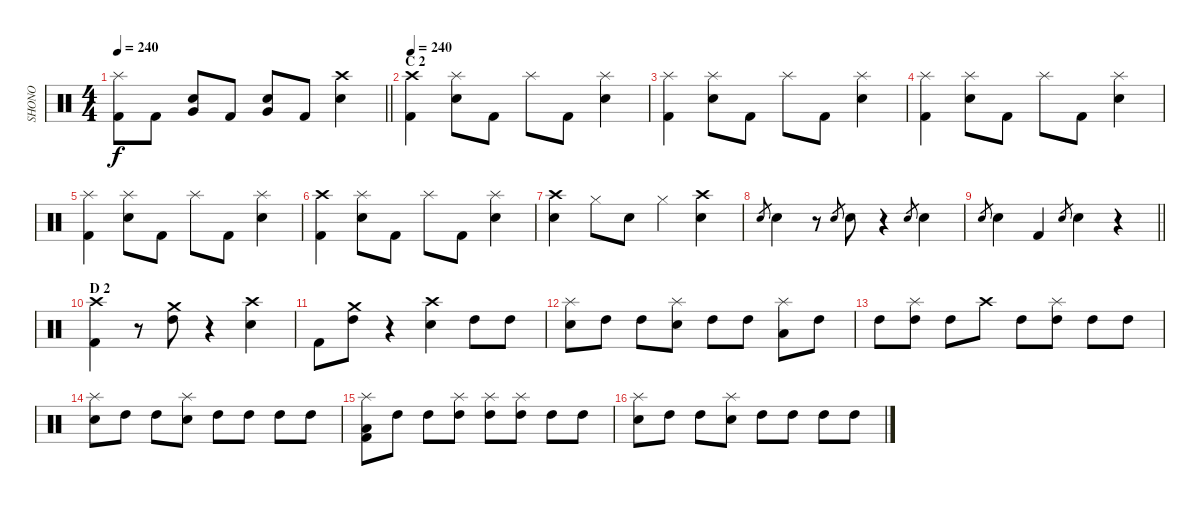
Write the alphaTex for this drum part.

\track ("SHONO" "SHONO") {instrument percussion}
\staff {score}
\articulation defaults
\ts (4 4)
\tempo 240
\clef neutral
\barLineRight lightlight
\ks c
("Splash (hit)" "Kick (hit) 2").8{dy f} "Kick (hit) 2".8 ("Snare (hit) 2" "Very Low Tom (hit)").8 "Kick (hit) 2".8 ("Snare (hit) 2" "Very Low Tom (hit)").8 "Kick (hit) 2".8 ("Crash high (hit)" "Snare (hit) 2").4 |
\section ("" "C 2")
\tempo 240
("Crash high (hit)" "Kick (hit) 2").4 ("Splash (hit)" "Snare (hit) 2").8 "Kick (hit) 2".8 "Splash (hit)".8 "Kick (hit) 2".8 ("Splash (hit)" "Snare (hit) 2").4 |
("Splash (hit)" "Kick (hit) 2").4 ("Splash (hit)" "Snare (hit) 2").8 "Kick (hit) 2".8 "Splash (hit)".8 "Kick (hit) 2".8 ("Splash (hit)" "Snare (hit) 2").4 |
("Splash (hit)" "Kick (hit) 2").4 ("Splash (hit)" "Snare (hit) 2").8 "Kick (hit) 2".8 "Splash (hit)".8 "Kick (hit) 2".8 ("Splash (hit)" "Snare (hit) 2").4 |
("Splash (hit)" "Kick (hit) 2").4 ("Splash (hit)" "Snare (hit) 2").8 "Kick (hit) 2".8 "Splash (hit)".8 "Kick (hit) 2".8 ("Splash (hit)" "Snare (hit) 2").4 |
("Crash high (hit)" "Kick (hit) 2").4 ("Splash (hit)" "Snare (hit) 2").8 "Kick (hit) 2".8 "Splash (hit)".8 "Kick (hit) 2".8 ("Splash (hit)" "Snare (hit) 2").4 |
("Crash high (hit)" "Snare (hit) 2").4 "Hi-Hat (closed)".8 "Snare (hit) 2".8 "Hi-Hat (closed)".4 ("Crash high (hit)" "Snare (hit) 2").4 |
"Snare (hit) 2".8{gr} "Snare (hit) 2".4 r.8 "Snare (hit) 2".8{gr} "Snare (hit) 2".8 r.4 "Snare (hit) 2".8{gr} "Snare (hit) 2".4 |
\barLineRight lightlight "Snare (hit) 2".8{gr} "Snare (hit) 2".4 "Kick (hit) 2".4 "Snare (hit) 2".8{gr} "Snare (hit) 2".4
r.4 |
\section ("" "D 2")
("Crash high (hit)" "Kick (hit) 2").4 r.8 ("Crash medium (hit)" "High Tom (hit)").8 r.4 ("Crash high (hit)" "Snare (hit) 2").4 |
"Kick (hit) 2".8 ("Crash medium (hit)" "High Tom (hit)").8 r.4 ("Crash high (hit)" "Snare (hit) 2").4 "High Tom (hit)".8 "High Tom (hit)".8 |
("Splash (hit)" "Snare (hit) 2").8 "High Tom (hit)".8 "High Tom (hit)".8 ("Splash (hit)" "Snare (hit) 2").8 "High Tom (hit)".8 "High Tom (hit)".8 ("Splash (hit)" "Low Floor Tom (hit)").8 "High Tom (hit)".8 |
"High Tom (hit)".8 ("Splash (hit)" "High Tom (hit)").8 "High Tom (hit)".8 "Crash high (hit)".8 "High Tom (hit)".8 ("Splash (hit)" "High Tom (hit)").8 "High Tom (hit)".8 "High Tom (hit)".8 |
("Splash (hit)" "Snare (hit) 2").8 "High Tom (hit)".8 "High Tom (hit)".8 ("Splash (hit)" "Snare (hit) 2").8 "High Tom (hit)".8 "High Tom (hit)".8 "High Tom (hit)".8 "High Tom (hit)".8 |
("Splash (hit)" "Low Floor Tom (hit)" "Kick (hit) 2").8 "High Tom (hit)".8 "High Tom (hit)".8 ("Splash (hit)" "High Tom (hit)").8 ("Splash (hit)" "High Tom (hit)").8 ("Splash (hit)" "High Tom (hit)").8 "High Tom (hit)".8 "High Tom (hit)".8 |
("Splash (hit)" "Snare (hit) 2").8 "High Tom (hit)".8 "High Tom (hit)".8 ("Splash (hit)" "Snare (hit) 2").8 "High Tom (hit)".8 "High Tom (hit)".8 "High Tom (hit)".8 "High Tom (hit)".8
